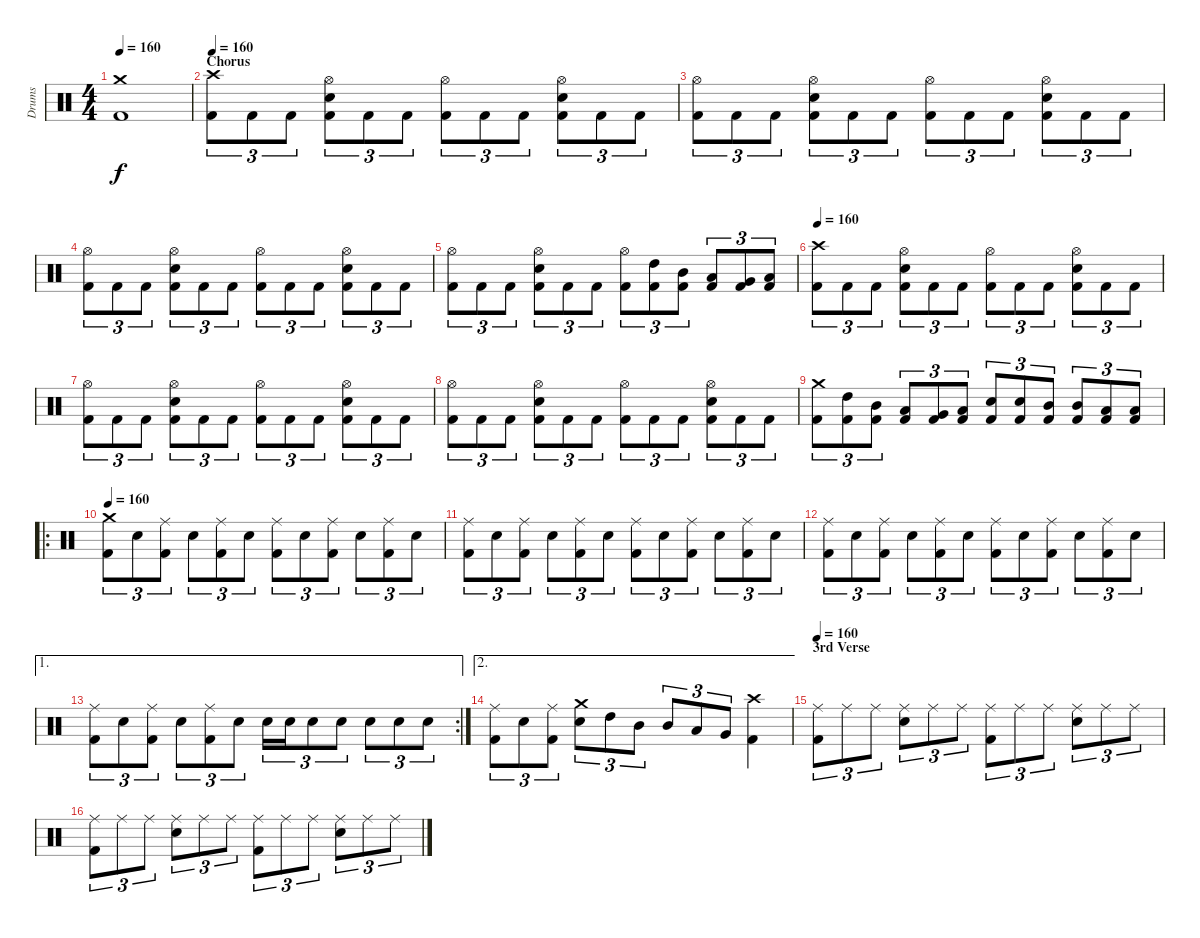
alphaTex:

\track ("Drums" "Drums") {instrument percussion}
\staff {score}
\articulation defaults
\ts (4 4)
\tempo 160
\clef neutral
\ks c
("Kick (hit) 2" "Crash medium (hit)").1{dy f} |
\section ("" "Chorus")
\tempo 160
("Kick (hit) 2" "Crash high (hit)").8{tu (3 2)} "Kick (hit) 2".8{tu (3 2)} "Kick (hit) 2".8{tu (3 2)} ("Kick (hit) 2" "Electric Snare (hit)" "Hi-Hat (open)").8{tu (3 2)} "Kick (hit) 2".8{tu (3 2)} "Kick (hit) 2".8{tu (3 2)} ("Kick (hit) 2" "Hi-Hat (open)").8{tu (3 2)} "Kick (hit) 2".8{tu (3 2)} "Kick (hit) 2".8{tu (3 2)} ("Kick (hit) 2" "Electric Snare (hit)" "Hi-Hat (open)").8{tu (3 2)} "Kick (hit) 2".8{tu (3 2)} "Kick (hit) 2".8{tu (3 2)} |
("Kick (hit) 2" "Hi-Hat (open)").8{tu (3 2)} "Kick (hit) 2".8{tu (3 2)} "Kick (hit) 2".8{tu (3 2)} ("Kick (hit) 2" "Electric Snare (hit)" "Hi-Hat (open)").8{tu (3 2)} "Kick (hit) 2".8{tu (3 2)} "Kick (hit) 2".8{tu (3 2)} ("Kick (hit) 2" "Hi-Hat (open)").8{tu (3 2)} "Kick (hit) 2".8{tu (3 2)} "Kick (hit) 2".8{tu (3 2)} ("Kick (hit) 2" "Electric Snare (hit)" "Hi-Hat (open)").8{tu (3 2)} "Kick (hit) 2".8{tu (3 2)} "Kick (hit) 2".8{tu (3 2)} |
("Kick (hit) 2" "Hi-Hat (open)").8{tu (3 2)} "Kick (hit) 2".8{tu (3 2)} "Kick (hit) 2".8{tu (3 2)} ("Kick (hit) 2" "Electric Snare (hit)" "Hi-Hat (open)").8{tu (3 2)} "Kick (hit) 2".8{tu (3 2)} "Kick (hit) 2".8{tu (3 2)} ("Kick (hit) 2" "Hi-Hat (open)").8{tu (3 2)} "Kick (hit) 2".8{tu (3 2)} "Kick (hit) 2".8{tu (3 2)} ("Kick (hit) 2" "Electric Snare (hit)" "Hi-Hat (open)").8{tu (3 2)} "Kick (hit) 2".8{tu (3 2)} "Kick (hit) 2".8{tu (3 2)} |
("Kick (hit) 2" "Hi-Hat (open)").8{tu (3 2)} "Kick (hit) 2".8{tu (3 2)} "Kick (hit) 2".8{tu (3 2)} ("Kick (hit) 2" "Electric Snare (hit)" "Hi-Hat (open)").8{tu (3 2)} "Kick (hit) 2".8{tu (3 2)} "Kick (hit) 2".8{tu (3 2)} ("Kick (hit) 2" "Hi-Hat (open)").8{tu (3 2)} ("Kick (hit) 2" "High Tom (hit)").8{tu (3 2)} ("Kick (hit) 2" "Mid Tom (hit)").8{tu (3 2)} ("Kick (hit) 2" "Low Tom (hit)").8{tu (3 2)} ("Kick (hit) 2" "Very Low Tom (hit)").8{tu (3 2)} ("Kick (hit) 2" "Low Floor Tom (hit)").8{tu (3 2)} |
\tempo 160
("Kick (hit) 2" "Crash high (hit)").8{tu (3 2)} "Kick (hit) 2".8{tu (3 2)} "Kick (hit) 2".8{tu (3 2)} ("Kick (hit) 2" "Electric Snare (hit)" "Hi-Hat (open)").8{tu (3 2)} "Kick (hit) 2".8{tu (3 2)} "Kick (hit) 2".8{tu (3 2)} ("Kick (hit) 2" "Hi-Hat (open)").8{tu (3 2)} "Kick (hit) 2".8{tu (3 2)} "Kick (hit) 2".8{tu (3 2)} ("Kick (hit) 2" "Electric Snare (hit)" "Hi-Hat (open)").8{tu (3 2)} "Kick (hit) 2".8{tu (3 2)} "Kick (hit) 2".8{tu (3 2)} |
("Kick (hit) 2" "Hi-Hat (open)").8{tu (3 2)} "Kick (hit) 2".8{tu (3 2)} "Kick (hit) 2".8{tu (3 2)} ("Kick (hit) 2" "Electric Snare (hit)" "Hi-Hat (open)").8{tu (3 2)} "Kick (hit) 2".8{tu (3 2)} "Kick (hit) 2".8{tu (3 2)} ("Kick (hit) 2" "Hi-Hat (open)").8{tu (3 2)} "Kick (hit) 2".8{tu (3 2)} "Kick (hit) 2".8{tu (3 2)} ("Kick (hit) 2" "Electric Snare (hit)" "Hi-Hat (open)").8{tu (3 2)} "Kick (hit) 2".8{tu (3 2)} "Kick (hit) 2".8{tu (3 2)} |
("Kick (hit) 2" "Hi-Hat (open)").8{tu (3 2)} "Kick (hit) 2".8{tu (3 2)} "Kick (hit) 2".8{tu (3 2)} ("Kick (hit) 2" "Electric Snare (hit)" "Hi-Hat (open)").8{tu (3 2)} "Kick (hit) 2".8{tu (3 2)} "Kick (hit) 2".8{tu (3 2)} ("Kick (hit) 2" "Hi-Hat (open)").8{tu (3 2)} "Kick (hit) 2".8{tu (3 2)} "Kick (hit) 2".8{tu (3 2)} ("Kick (hit) 2" "Electric Snare (hit)" "Hi-Hat (open)").8{tu (3 2)} "Kick (hit) 2".8{tu (3 2)} "Kick (hit) 2".8{tu (3 2)} |
("Kick (hit) 2" "Crash medium (hit)").8{tu (3 2)} ("Kick (hit) 2" "High Tom (hit)").8{tu (3 2)} ("Kick (hit) 2" "Mid Tom (hit)").8{tu (3 2)} ("Kick (hit) 2" "Low Tom (hit)").8{tu (3 2)} ("Kick (hit) 2" "Very Low Tom (hit)").8{tu (3 2)} ("Kick (hit) 2" "Low Floor Tom (hit)").8{tu (3 2)} ("Kick (hit) 2" "Electric Snare (hit)").8{tu (3 2)} ("Kick (hit) 2" "Electric Snare (hit)").8{tu (3 2)} ("Kick (hit) 2" "Mid Tom (hit)").8{tu (3 2)} ("Kick (hit) 2" "Mid Tom (hit)").8{tu (3 2)} ("Kick (hit) 2" "Low Tom (hit)").8{tu (3 2)} ("Kick (hit) 2" "Low Tom (hit)").8{tu (3 2)} |
\ro
\tempo 160
("Kick (hit) 2" "Crash medium (hit)").8{tu (3 2)} "Electric Snare (hit)".8{tu (3 2)} ("Kick (hit) 2" "Ride (middle)").8{tu (3 2)} "Electric Snare (hit)".8{tu (3 2)} ("Kick (hit) 2" "Ride (middle)").8{tu (3 2)} "Electric Snare (hit)".8{tu (3 2)} ("Kick (hit) 2" "Ride (middle)").8{tu (3 2)} "Electric Snare (hit)".8{tu (3 2)} ("Kick (hit) 2" "Ride (middle)").8{tu (3 2)} "Electric Snare (hit)".8{tu (3 2)} ("Kick (hit) 2" "Ride (middle)").8{tu (3 2)} "Electric Snare (hit)".8{tu (3 2)} |
("Kick (hit) 2" "Ride (middle)").8{tu (3 2)} "Electric Snare (hit)".8{tu (3 2)} ("Kick (hit) 2" "Ride (middle)").8{tu (3 2)} "Electric Snare (hit)".8{tu (3 2)} ("Kick (hit) 2" "Ride (middle)").8{tu (3 2)} "Electric Snare (hit)".8{tu (3 2)} ("Kick (hit) 2" "Ride (middle)").8{tu (3 2)} "Electric Snare (hit)".8{tu (3 2)} ("Kick (hit) 2" "Ride (middle)").8{tu (3 2)} "Electric Snare (hit)".8{tu (3 2)} ("Kick (hit) 2" "Ride (middle)").8{tu (3 2)} "Electric Snare (hit)".8{tu (3 2)} |
("Kick (hit) 2" "Ride (middle)").8{tu (3 2)} "Electric Snare (hit)".8{tu (3 2)} ("Kick (hit) 2" "Ride (middle)").8{tu (3 2)} "Electric Snare (hit)".8{tu (3 2)} ("Kick (hit) 2" "Ride (middle)").8{tu (3 2)} "Electric Snare (hit)".8{tu (3 2)} ("Kick (hit) 2" "Ride (middle)").8{tu (3 2)} "Electric Snare (hit)".8{tu (3 2)} ("Kick (hit) 2" "Ride (middle)").8{tu (3 2)} "Electric Snare (hit)".8{tu (3 2)} ("Kick (hit) 2" "Ride (middle)").8{tu (3 2)} "Electric Snare (hit)".8{tu (3 2)} |
\ae 1
\rc 2
("Kick (hit) 2" "Ride (middle)").8{tu (3 2)} "Electric Snare (hit)".8{tu (3 2)} ("Kick (hit) 2" "Ride (middle)").8{tu (3 2)} "Electric Snare (hit)".8{tu (3 2)} ("Kick (hit) 2" "Ride (middle)").8{tu (3 2)} "Electric Snare (hit)".8{tu (3 2)} "Electric Snare (hit)".16{tu (3 2)} "Electric Snare (hit)".16{tu (3 2)} "Electric Snare (hit)".8{tu (3 2)} "Electric Snare (hit)".8{tu (3 2)} "Electric Snare (hit)".8{tu (3 2)} "Electric Snare (hit)".8{tu (3 2)} "Electric Snare (hit)".8{tu (3 2)} |
\ae 2
("Kick (hit) 2" "Ride (middle)").8{tu (3 2)} "Electric Snare (hit)".8{tu (3 2)} ("Kick (hit) 2" "Ride (middle)").8{tu (3 2)} ("Electric Snare (hit)" "Crash medium (hit)").8{tu (3 2)} "High Tom (hit)".8{tu (3 2)} "Mid Tom (hit)".8{tu (3 2)} "Mid Tom (hit)".8{tu (3 2)} "Low Tom (hit)".8{tu (3 2)} "Very Low Tom (hit)".8{tu (3 2)} ("Kick (hit) 2" "Crash high (hit)").4 |
\section ("" "3rd Verse")
\tempo 160
("Kick (hit) 2" "Ride (middle)").8{tu (3 2)} "Ride (middle)".8{tu (3 2)} "Ride (middle)".8{tu (3 2)} ("Electric Snare (hit)" "Ride (middle)").8{tu (3 2)} "Ride (middle)".8{tu (3 2)} "Ride (middle)".8{tu (3 2)} ("Kick (hit) 2" "Ride (middle)").8{tu (3 2)} "Ride (middle)".8{tu (3 2)} "Ride (middle)".8{tu (3 2)} ("Electric Snare (hit)" "Ride (middle)").8{tu (3 2)} "Ride (middle)".8{tu (3 2)} "Ride (middle)".8{tu (3 2)} |
("Kick (hit) 2" "Ride (middle)").8{tu (3 2)} "Ride (middle)".8{tu (3 2)} "Ride (middle)".8{tu (3 2)} ("Electric Snare (hit)" "Ride (middle)").8{tu (3 2)} "Ride (middle)".8{tu (3 2)} "Ride (middle)".8{tu (3 2)} ("Kick (hit) 2" "Ride (middle)").8{tu (3 2)} "Ride (middle)".8{tu (3 2)} "Ride (middle)".8{tu (3 2)} ("Electric Snare (hit)" "Ride (middle)").8{tu (3 2)} "Ride (middle)".8{tu (3 2)} "Ride (middle)".8{tu (3 2)}
